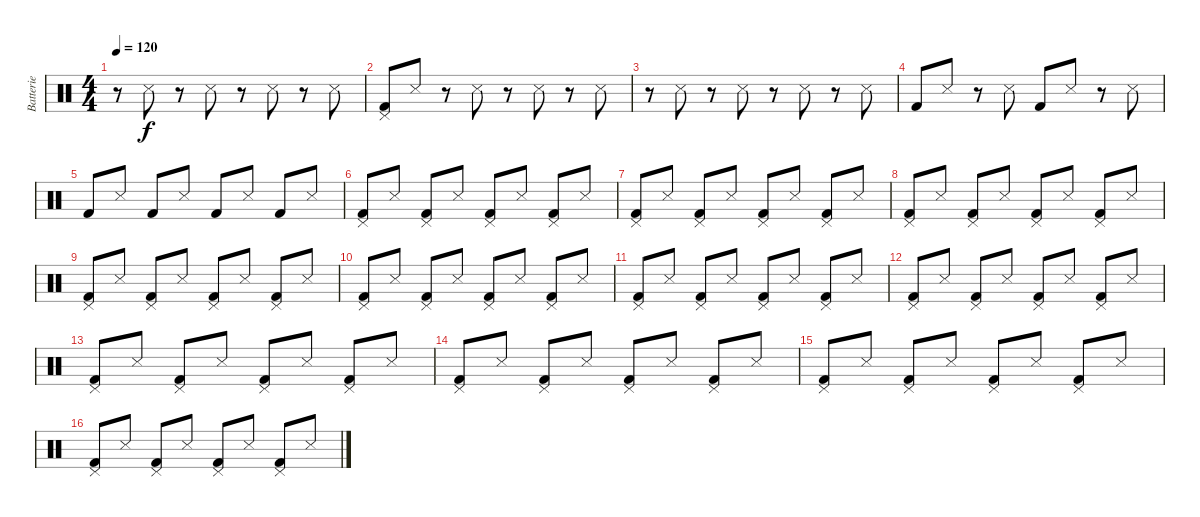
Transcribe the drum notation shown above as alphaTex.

\track ("Batterie" "Batterie") {instrument percussion}
\staff {score}
\articulation defaults
\ts (4 4)
\tempo 120
\clef neutral
\ks c
r.8{dy f} "Snare (side stick) 3".8 r.8 "Snare (side stick) 3".8 r.8 "Snare (side stick) 3".8 r.8 "Snare (side stick) 3".8 |
("Pedal Hi-Hat (hit)" "Kick (hit) 2").8 "Snare (side stick) 3".8 r.8 "Snare (side stick) 3".8 r.8 "Snare (side stick) 3".8 r.8 "Snare (side stick) 3".8 |
r.8 "Snare (side stick) 3".8 r.8 "Snare (side stick) 3".8 r.8 "Snare (side stick) 3".8 r.8 "Snare (side stick) 3".8 |
"Kick (hit) 2".8 "Snare (side stick) 3".8 r.8 "Snare (side stick) 3".8 "Kick (hit) 2".8 "Snare (side stick) 3".8 r.8 "Snare (side stick) 3".8 |
"Kick (hit) 2".8 "Snare (side stick) 3".8 "Kick (hit) 2".8 "Snare (side stick) 3".8 "Kick (hit) 2".8 "Snare (side stick) 3".8 "Kick (hit) 2".8 "Snare (side stick) 3".8 |
("Pedal Hi-Hat (hit)" "Kick (hit) 2").8 "Snare (side stick) 3".8 ("Pedal Hi-Hat (hit)" "Kick (hit) 2").8 "Snare (side stick) 3".8 ("Pedal Hi-Hat (hit)" "Kick (hit) 2").8 "Snare (side stick) 3".8 ("Pedal Hi-Hat (hit)" "Kick (hit) 2").8 "Snare (side stick) 3".8 |
("Pedal Hi-Hat (hit)" "Kick (hit) 2").8 "Snare (side stick) 3".8 ("Pedal Hi-Hat (hit)" "Kick (hit) 2").8 "Snare (side stick) 3".8 ("Pedal Hi-Hat (hit)" "Kick (hit) 2").8 "Snare (side stick) 3".8 ("Pedal Hi-Hat (hit)" "Kick (hit) 2").8 "Snare (side stick) 3".8 |
("Pedal Hi-Hat (hit)" "Kick (hit) 2").8 "Snare (side stick) 3".8 ("Pedal Hi-Hat (hit)" "Kick (hit) 2").8 "Snare (side stick) 3".8 ("Pedal Hi-Hat (hit)" "Kick (hit) 2").8 "Snare (side stick) 3".8 ("Pedal Hi-Hat (hit)" "Kick (hit) 2").8 "Snare (side stick) 3".8 |
("Pedal Hi-Hat (hit)" "Kick (hit) 2").8 "Snare (side stick) 3".8 ("Pedal Hi-Hat (hit)" "Kick (hit) 2").8 "Snare (side stick) 3".8 ("Pedal Hi-Hat (hit)" "Kick (hit) 2").8 "Snare (side stick) 3".8 ("Pedal Hi-Hat (hit)" "Kick (hit) 2").8 "Snare (side stick) 3".8 |
("Pedal Hi-Hat (hit)" "Kick (hit) 2").8 "Snare (side stick) 3".8 ("Pedal Hi-Hat (hit)" "Kick (hit) 2").8 "Snare (side stick) 3".8 ("Pedal Hi-Hat (hit)" "Kick (hit) 2").8 "Snare (side stick) 3".8 ("Pedal Hi-Hat (hit)" "Kick (hit) 2").8 "Snare (side stick) 3".8 |
("Pedal Hi-Hat (hit)" "Kick (hit) 2").8 "Snare (side stick) 3".8 ("Pedal Hi-Hat (hit)" "Kick (hit) 2").8 "Snare (side stick) 3".8 ("Pedal Hi-Hat (hit)" "Kick (hit) 2").8 "Snare (side stick) 3".8 ("Pedal Hi-Hat (hit)" "Kick (hit) 2").8 "Snare (side stick) 3".8 |
("Pedal Hi-Hat (hit)" "Kick (hit) 2").8 "Snare (side stick) 3".8 ("Pedal Hi-Hat (hit)" "Kick (hit) 2").8 "Snare (side stick) 3".8 ("Pedal Hi-Hat (hit)" "Kick (hit) 2").8 "Snare (side stick) 3".8 ("Pedal Hi-Hat (hit)" "Kick (hit) 2").8 "Snare (side stick) 3".8 |
("Pedal Hi-Hat (hit)" "Kick (hit) 2").8 "Snare (side stick) 3".8 ("Pedal Hi-Hat (hit)" "Kick (hit) 2").8 "Snare (side stick) 3".8 ("Pedal Hi-Hat (hit)" "Kick (hit) 2").8 "Snare (side stick) 3".8 ("Pedal Hi-Hat (hit)" "Kick (hit) 2").8 "Snare (side stick) 3".8 |
("Pedal Hi-Hat (hit)" "Kick (hit) 2").8 "Snare (side stick) 3".8 ("Pedal Hi-Hat (hit)" "Kick (hit) 2").8 "Snare (side stick) 3".8 ("Pedal Hi-Hat (hit)" "Kick (hit) 2").8 "Snare (side stick) 3".8 ("Pedal Hi-Hat (hit)" "Kick (hit) 2").8 "Snare (side stick) 3".8 |
("Pedal Hi-Hat (hit)" "Kick (hit) 2").8 "Snare (side stick) 3".8 ("Pedal Hi-Hat (hit)" "Kick (hit) 2").8 "Snare (side stick) 3".8 ("Pedal Hi-Hat (hit)" "Kick (hit) 2").8 "Snare (side stick) 3".8 ("Pedal Hi-Hat (hit)" "Kick (hit) 2").8 "Snare (side stick) 3".8 |
("Pedal Hi-Hat (hit)" "Kick (hit) 2").8 "Snare (side stick) 3".8 ("Pedal Hi-Hat (hit)" "Kick (hit) 2").8 "Snare (side stick) 3".8 ("Pedal Hi-Hat (hit)" "Kick (hit) 2").8 "Snare (side stick) 3".8 ("Pedal Hi-Hat (hit)" "Kick (hit) 2").8 "Snare (side stick) 3".8
